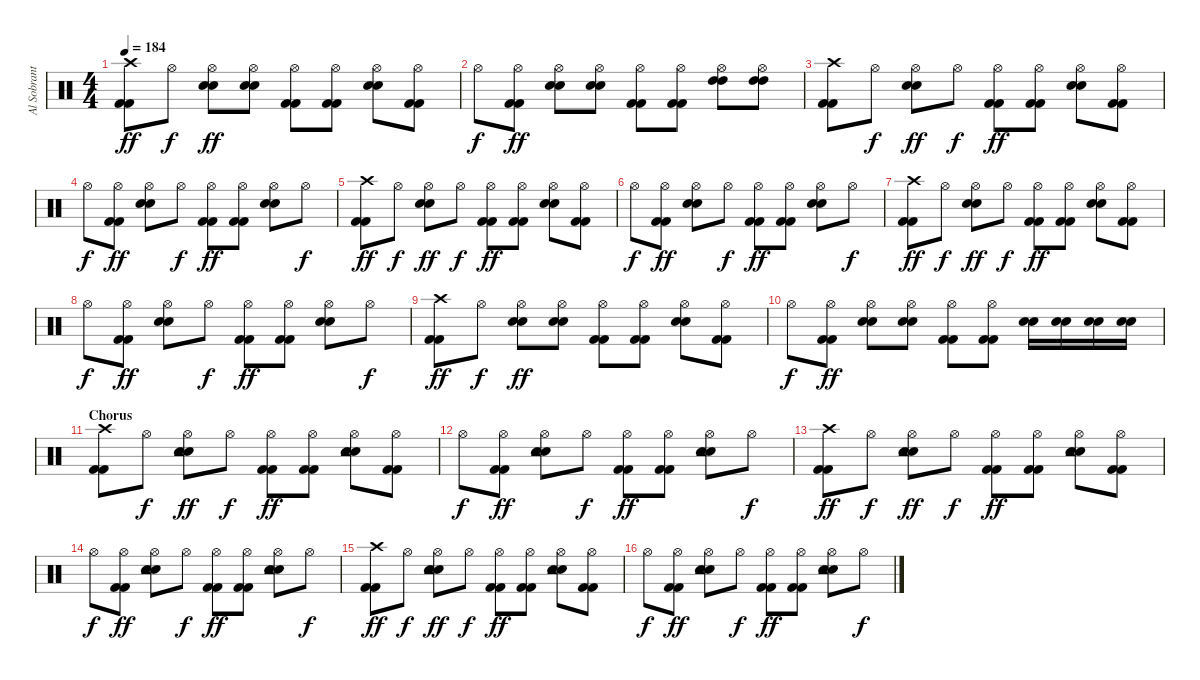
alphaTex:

\track ("Al Sobrante (Drums)" "Al Sobrant") {instrument percussion}
\staff {score}
\articulation defaults
\ts (4 4)
\tempo 184
\clef neutral
\ks c
("Kick (hit) 2" "Kick (hit) 2" "Crash high (hit)").8{dy ff} "Hi-Hat (open)".8{dy f} ("Electric Snare (hit)" "Electric Snare (hit)" "Hi-Hat (open)").8{dy ff} ("Electric Snare (hit)" "Electric Snare (hit)" "Hi-Hat (open)").8 ("Kick (hit) 2" "Kick (hit) 2" "Hi-Hat (open)").8 ("Kick (hit) 2" "Kick (hit) 2" "Hi-Hat (open)").8 ("Electric Snare (hit)" "Electric Snare (hit)" "Hi-Hat (open)").8 ("Kick (hit) 2" "Kick (hit) 2" "Hi-Hat (open)").8 |
"Hi-Hat (open)".8{dy f} ("Kick (hit) 2" "Kick (hit) 2" "Hi-Hat (open)").8{dy ff} ("Electric Snare (hit)" "Electric Snare (hit)" "Hi-Hat (open)").8 ("Electric Snare (hit)" "Electric Snare (hit)" "Hi-Hat (open)").8 ("Kick (hit) 2" "Kick (hit) 2" "Hi-Hat (open)").8 ("Kick (hit) 2" "Kick (hit) 2" "Hi-Hat (open)").8 ("High Tom (hit)" "High Tom (hit)" "Hi-Hat (open)").8 ("High Tom (hit)" "High Tom (hit)" "Hi-Hat (open)").8 |
("Kick (hit) 2" "Kick (hit) 2" "Crash high (hit)").8 "Hi-Hat (open)".8{dy f} ("Electric Snare (hit)" "Electric Snare (hit)" "Hi-Hat (open)").8{dy ff} "Hi-Hat (open)".8{dy f} ("Kick (hit) 2" "Kick (hit) 2" "Hi-Hat (open)").8{dy ff} ("Kick (hit) 2" "Kick (hit) 2" "Hi-Hat (open)").8 ("Electric Snare (hit)" "Electric Snare (hit)" "Hi-Hat (open)").8 ("Kick (hit) 2" "Kick (hit) 2" "Hi-Hat (open)").8 |
"Hi-Hat (open)".8{dy f} ("Kick (hit) 2" "Kick (hit) 2" "Hi-Hat (open)").8{dy ff} ("Electric Snare (hit)" "Electric Snare (hit)" "Hi-Hat (open)").8 "Hi-Hat (open)".8{dy f} ("Kick (hit) 2" "Kick (hit) 2" "Hi-Hat (open)").8{dy ff} ("Kick (hit) 2" "Kick (hit) 2" "Hi-Hat (open)").8 ("Electric Snare (hit)" "Electric Snare (hit)" "Hi-Hat (open)").8 "Hi-Hat (open)".8{dy f} |
("Kick (hit) 2" "Kick (hit) 2" "Crash high (hit)").8{dy ff} "Hi-Hat (open)".8{dy f} ("Electric Snare (hit)" "Electric Snare (hit)" "Hi-Hat (open)").8{dy ff} "Hi-Hat (open)".8{dy f} ("Kick (hit) 2" "Kick (hit) 2" "Hi-Hat (open)").8{dy ff} ("Kick (hit) 2" "Kick (hit) 2" "Hi-Hat (open)").8 ("Electric Snare (hit)" "Electric Snare (hit)" "Hi-Hat (open)").8 ("Kick (hit) 2" "Kick (hit) 2" "Hi-Hat (open)").8 |
"Hi-Hat (open)".8{dy f} ("Kick (hit) 2" "Kick (hit) 2" "Hi-Hat (open)").8{dy ff} ("Electric Snare (hit)" "Electric Snare (hit)" "Hi-Hat (open)").8 "Hi-Hat (open)".8{dy f} ("Kick (hit) 2" "Kick (hit) 2" "Hi-Hat (open)").8{dy ff} ("Kick (hit) 2" "Kick (hit) 2" "Hi-Hat (open)").8 ("Electric Snare (hit)" "Electric Snare (hit)" "Hi-Hat (open)").8 "Hi-Hat (open)".8{dy f} |
("Kick (hit) 2" "Kick (hit) 2" "Crash high (hit)").8{dy ff} "Hi-Hat (open)".8{dy f} ("Electric Snare (hit)" "Electric Snare (hit)" "Hi-Hat (open)").8{dy ff} "Hi-Hat (open)".8{dy f} ("Kick (hit) 2" "Kick (hit) 2" "Hi-Hat (open)").8{dy ff} ("Kick (hit) 2" "Kick (hit) 2" "Hi-Hat (open)").8 ("Electric Snare (hit)" "Electric Snare (hit)" "Hi-Hat (open)").8 ("Kick (hit) 2" "Kick (hit) 2" "Hi-Hat (open)").8 |
"Hi-Hat (open)".8{dy f} ("Kick (hit) 2" "Kick (hit) 2" "Hi-Hat (open)").8{dy ff} ("Electric Snare (hit)" "Electric Snare (hit)" "Hi-Hat (open)").8 "Hi-Hat (open)".8{dy f} ("Kick (hit) 2" "Kick (hit) 2" "Hi-Hat (open)").8{dy ff} ("Kick (hit) 2" "Kick (hit) 2" "Hi-Hat (open)").8 ("Electric Snare (hit)" "Electric Snare (hit)" "Hi-Hat (open)").8 "Hi-Hat (open)".8{dy f} |
("Kick (hit) 2" "Kick (hit) 2" "Crash high (hit)").8{dy ff} "Hi-Hat (open)".8{dy f} ("Electric Snare (hit)" "Electric Snare (hit)" "Hi-Hat (open)").8{dy ff} ("Electric Snare (hit)" "Electric Snare (hit)" "Hi-Hat (open)").8 ("Kick (hit) 2" "Kick (hit) 2" "Hi-Hat (open)").8 ("Kick (hit) 2" "Kick (hit) 2" "Hi-Hat (open)").8 ("Electric Snare (hit)" "Electric Snare (hit)" "Hi-Hat (open)").8 ("Kick (hit) 2" "Kick (hit) 2" "Hi-Hat (open)").8 |
"Hi-Hat (open)".8{dy f} ("Kick (hit) 2" "Kick (hit) 2" "Hi-Hat (open)").8{dy ff} ("Electric Snare (hit)" "Electric Snare (hit)" "Hi-Hat (open)").8 ("Electric Snare (hit)" "Electric Snare (hit)" "Hi-Hat (open)").8 ("Kick (hit) 2" "Kick (hit) 2" "Hi-Hat (open)").8 ("Kick (hit) 2" "Kick (hit) 2" "Hi-Hat (open)").8 ("Electric Snare (hit)" "Electric Snare (hit)").16 ("Electric Snare (hit)" "Electric Snare (hit)").16 ("Electric Snare (hit)" "Electric Snare (hit)").16 ("Electric Snare (hit)" "Electric Snare (hit)").16 |
\section ("" "Chorus")
("Kick (hit) 2" "Kick (hit) 2" "Crash high (hit)").8 "Hi-Hat (open)".8{dy f} ("Electric Snare (hit)" "Electric Snare (hit)" "Tambourine (hit)" "Hi-Hat (open)").8{dy ff} "Hi-Hat (open)".8{dy f} ("Kick (hit) 2" "Kick (hit) 2" "Hi-Hat (open)").8{dy ff} ("Kick (hit) 2" "Kick (hit) 2" "Hi-Hat (open)").8 ("Electric Snare (hit)" "Electric Snare (hit)" "Tambourine (hit)" "Hi-Hat (open)").8 ("Kick (hit) 2" "Kick (hit) 2" "Hi-Hat (open)").8 |
"Hi-Hat (open)".8{dy f} ("Kick (hit) 2" "Kick (hit) 2" "Hi-Hat (open)").8{dy ff} ("Electric Snare (hit)" "Electric Snare (hit)" "Tambourine (hit)" "Hi-Hat (open)").8 "Hi-Hat (open)".8{dy f} ("Kick (hit) 2" "Kick (hit) 2" "Hi-Hat (open)").8{dy ff} ("Kick (hit) 2" "Kick (hit) 2" "Hi-Hat (open)").8 ("Electric Snare (hit)" "Electric Snare (hit)" "Tambourine (hit)" "Hi-Hat (open)").8 "Hi-Hat (open)".8{dy f} |
("Kick (hit) 2" "Kick (hit) 2" "Crash high (hit)").8{dy ff} "Hi-Hat (open)".8{dy f} ("Electric Snare (hit)" "Electric Snare (hit)" "Tambourine (hit)" "Hi-Hat (open)").8{dy ff} "Hi-Hat (open)".8{dy f} ("Kick (hit) 2" "Kick (hit) 2" "Hi-Hat (open)").8{dy ff} ("Kick (hit) 2" "Kick (hit) 2" "Hi-Hat (open)").8 ("Electric Snare (hit)" "Electric Snare (hit)" "Tambourine (hit)" "Hi-Hat (open)").8 ("Kick (hit) 2" "Kick (hit) 2" "Hi-Hat (open)").8 |
"Hi-Hat (open)".8{dy f} ("Kick (hit) 2" "Kick (hit) 2" "Hi-Hat (open)").8{dy ff} ("Electric Snare (hit)" "Electric Snare (hit)" "Tambourine (hit)" "Hi-Hat (open)").8 "Hi-Hat (open)".8{dy f} ("Kick (hit) 2" "Kick (hit) 2" "Hi-Hat (open)").8{dy ff} ("Kick (hit) 2" "Kick (hit) 2" "Hi-Hat (open)").8 ("Electric Snare (hit)" "Electric Snare (hit)" "Tambourine (hit)" "Hi-Hat (open)").8 "Hi-Hat (open)".8{dy f} |
("Kick (hit) 2" "Kick (hit) 2" "Crash high (hit)").8{dy ff} "Hi-Hat (open)".8{dy f} ("Electric Snare (hit)" "Electric Snare (hit)" "Tambourine (hit)" "Hi-Hat (open)").8{dy ff} "Hi-Hat (open)".8{dy f} ("Kick (hit) 2" "Kick (hit) 2" "Hi-Hat (open)").8{dy ff} ("Kick (hit) 2" "Kick (hit) 2" "Hi-Hat (open)").8 ("Electric Snare (hit)" "Electric Snare (hit)" "Tambourine (hit)" "Hi-Hat (open)").8 ("Kick (hit) 2" "Kick (hit) 2" "Hi-Hat (open)").8 |
"Hi-Hat (open)".8{dy f} ("Kick (hit) 2" "Kick (hit) 2" "Hi-Hat (open)").8{dy ff} ("Electric Snare (hit)" "Electric Snare (hit)" "Tambourine (hit)" "Hi-Hat (open)").8 "Hi-Hat (open)".8{dy f} ("Kick (hit) 2" "Kick (hit) 2" "Hi-Hat (open)").8{dy ff} ("Kick (hit) 2" "Kick (hit) 2" "Hi-Hat (open)").8 ("Electric Snare (hit)" "Electric Snare (hit)" "Tambourine (hit)" "Hi-Hat (open)").8 "Hi-Hat (open)".8{dy f}
